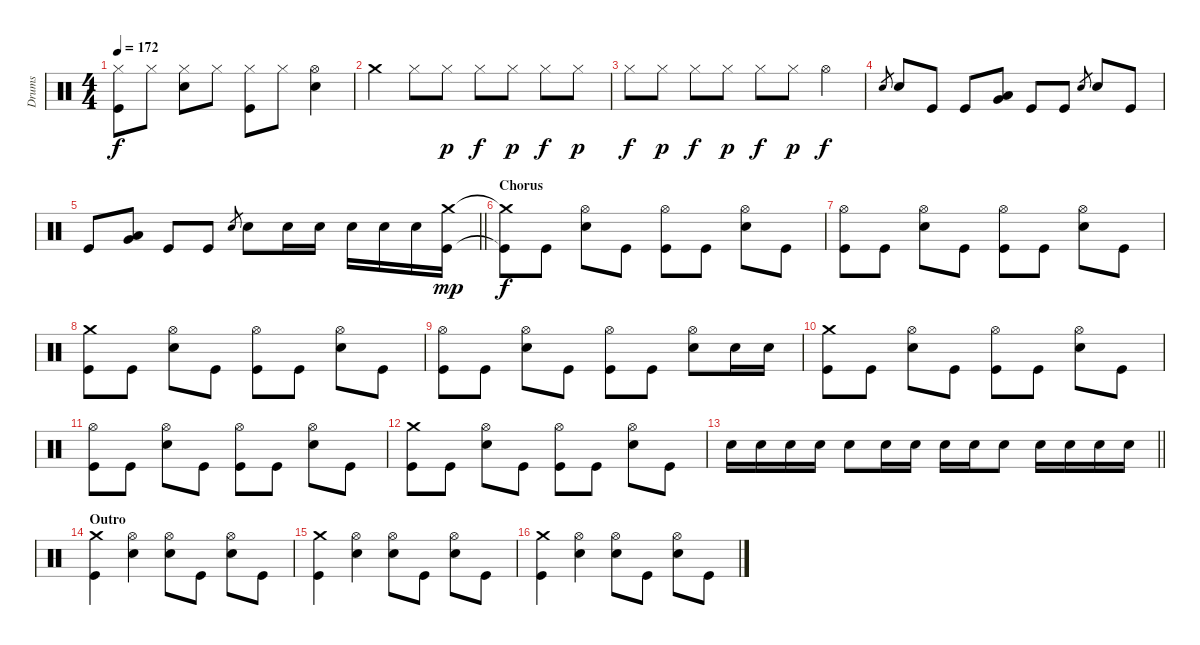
\track ("Drums" "Drums") {instrument percussion}
\staff {score}
\articulation defaults
\ts (4 4)
\tempo 172
\clef neutral
\ks c
("Hi-Hat (closed)" "Kick (hit)").8{dy f} "Hi-Hat (closed)".8 ("Hi-Hat (closed)" "Snare (hit) 2").8 "Hi-Hat (closed)".8 ("Hi-Hat (closed)" "Kick (hit)").8 "Hi-Hat (closed)".8 ("Hi-Hat (open)" "Snare (hit) 2").4 |
"Crash medium (hit)".4 "Hi-Hat (closed)".8 "Hi-Hat (closed)".8{dy p} "Hi-Hat (closed)".8{dy f} "Hi-Hat (closed)".8{dy p} "Hi-Hat (closed)".8{dy f} "Hi-Hat (closed)".8{dy p} |
"Hi-Hat (closed)".8{dy f} "Hi-Hat (closed)".8{dy p} "Hi-Hat (closed)".8{dy f} "Hi-Hat (closed)".8{dy p} "Hi-Hat (closed)".8{dy f} "Hi-Hat (closed)".8{dy p} "Hi-Hat (open)".4{dy f} |
"Snare (hit) 2".8{gr} "Snare (hit) 2".8 "Kick (hit)".8 "Kick (hit)".8 ("Very Low Tom (hit)" "Low Floor Tom (hit)").8 "Kick (hit)".8 "Kick (hit)".8 "Snare (hit) 2".8{gr} "Snare (hit) 2".8 "Kick (hit)".8 |
\barLineRight lightlight "Kick (hit)".8
("Very Low Tom (hit)" "Low Floor Tom (hit)").8 "Kick (hit)".8 "Kick (hit)".8 "Snare (hit) 2".8{gr} "Snare (hit) 2".8 "Snare (hit) 2".16 "Snare (hit) 2".16 "Snare (hit) 2".16 "Snare (hit) 2".16 "Snare (hit) 2".16 ("Crash medium (hit)" "Kick (hit)").16{dy mp} |
\section ("" "Chorus")
("Crash medium (hit)"{t} "Kick (hit)"{t}).8{dy f} "Kick (hit)".8 ("Hi-Hat (open)" "Snare (hit) 2").8 "Kick (hit)".8 ("Hi-Hat (open)" "Kick (hit)").8 "Kick (hit)".8 ("Hi-Hat (open)" "Snare (hit) 2").8 "Kick (hit)".8 |
("Hi-Hat (open)" "Kick (hit)").8 "Kick (hit)".8 ("Hi-Hat (open)" "Snare (hit) 2").8 "Kick (hit)".8 ("Hi-Hat (open)" "Kick (hit)").8 "Kick (hit)".8 ("Hi-Hat (open)" "Snare (hit) 2").8 "Kick (hit)".8 |
("Crash medium (hit)" "Kick (hit)").8 "Kick (hit)".8 ("Hi-Hat (open)" "Snare (hit) 2").8 "Kick (hit)".8 ("Hi-Hat (open)" "Kick (hit)").8 "Kick (hit)".8 ("Hi-Hat (open)" "Snare (hit) 2").8 "Kick (hit)".8 |
("Hi-Hat (open)" "Kick (hit)").8 "Kick (hit)".8 ("Hi-Hat (open)" "Snare (hit) 2").8 "Kick (hit)".8 ("Hi-Hat (open)" "Kick (hit)").8 "Kick (hit)".8 ("Hi-Hat (open)" "Snare (hit) 2").8 "Snare (hit) 2".16 "Snare (hit) 2".16 |
("Crash medium (hit)" "Kick (hit)").8 "Kick (hit)".8 ("Hi-Hat (open)" "Snare (hit) 2").8 "Kick (hit)".8 ("Hi-Hat (open)" "Kick (hit)").8 "Kick (hit)".8 ("Hi-Hat (open)" "Snare (hit) 2").8 "Kick (hit)".8 |
("Hi-Hat (open)" "Kick (hit)").8 "Kick (hit)".8 ("Hi-Hat (open)" "Snare (hit) 2").8 "Kick (hit)".8 ("Hi-Hat (open)" "Kick (hit)").8 "Kick (hit)".8 ("Hi-Hat (open)" "Snare (hit) 2").8 "Kick (hit)".8 |
("Crash medium (hit)" "Kick (hit)").8 "Kick (hit)".8 ("Hi-Hat (open)" "Snare (hit) 2").8 "Kick (hit)".8 ("Hi-Hat (open)" "Kick (hit)").8 "Kick (hit)".8 ("Hi-Hat (open)" "Snare (hit) 2").8 "Kick (hit)".8 |
\barLineRight lightlight "Snare (hit) 2".16 "Snare (hit) 2".16 "Snare (hit) 2".16 "Snare (hit) 2".16 "Snare (hit) 2".8 "Snare (hit) 2".16 "Snare (hit) 2".16 "Snare (hit) 2".16 "Snare (hit) 2".16 "Snare (hit) 2".8 "Snare (hit) 2".16 "Snare (hit) 2".16 "Snare (hit) 2".16 "Snare (hit) 2".16
|
\section ("" "Outro")
("Crash medium (hit)" "Kick (hit)").4 ("Hi-Hat (open)" "Snare (hit) 2").4 ("Hi-Hat (open)" "Snare (hit) 2").8 "Kick (hit)".8 ("Hi-Hat (open)" "Snare (hit) 2").8 "Kick (hit)".8 |
("Crash medium (hit)" "Kick (hit)").4 ("Hi-Hat (open)" "Snare (hit) 2").4 ("Hi-Hat (open)" "Snare (hit) 2").8 "Kick (hit)".8 ("Hi-Hat (open)" "Snare (hit) 2").8 "Kick (hit)".8 |
("Crash medium (hit)" "Kick (hit)").4 ("Hi-Hat (open)" "Snare (hit) 2").4 ("Hi-Hat (open)" "Snare (hit) 2").8 "Kick (hit)".8 ("Hi-Hat (open)" "Snare (hit) 2").8 "Kick (hit)".8
